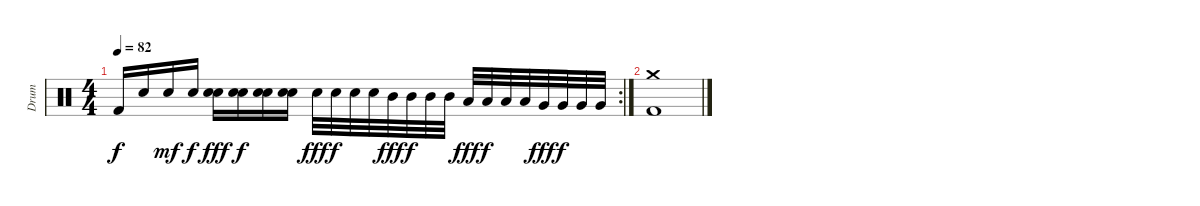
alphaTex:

\track ("Drum" "Drum") {instrument percussion}
\staff {score}
\articulation defaults
\rc 2
\ts (4 4)
\tempo 82
\clef neutral
\ks c "Kick (hit) 2".16{dy f} "Electric Snare (hit)".16 "Electric Snare (hit)".16{dy mf} "Electric Snare (hit)".16{dy f}
("Snare (hit) 2" "Electric Snare (hit)").16{dy fff} ("Snare (hit) 2" "Electric Snare (hit)").16{dy f} ("Snare (hit) 2" "Electric Snare (hit)").16 ("Snare (hit) 2" "Electric Snare (hit)").16 "Snare (hit) 2".32{dy fff} "Snare (hit) 2".32{dy f} "Snare (hit) 2".32 "Snare (hit) 2".32 "Mid Tom (hit)".32{dy fff} "Mid Tom (hit)".32{dy f} "Mid Tom (hit)".32 "Mid Tom (hit)".32 "Low Tom (hit)".32{dy fff} "Low Tom (hit)".32{dy f} "Low Tom (hit)".32 "Low Tom (hit)".32 "Very Low Tom (hit)".32{dy fff} "Very Low Tom (hit)".32{dy f} "Very Low Tom (hit)".32 "Very Low Tom (hit)".32 |
("Crash medium (hit)" "Kick (hit) 2").1
